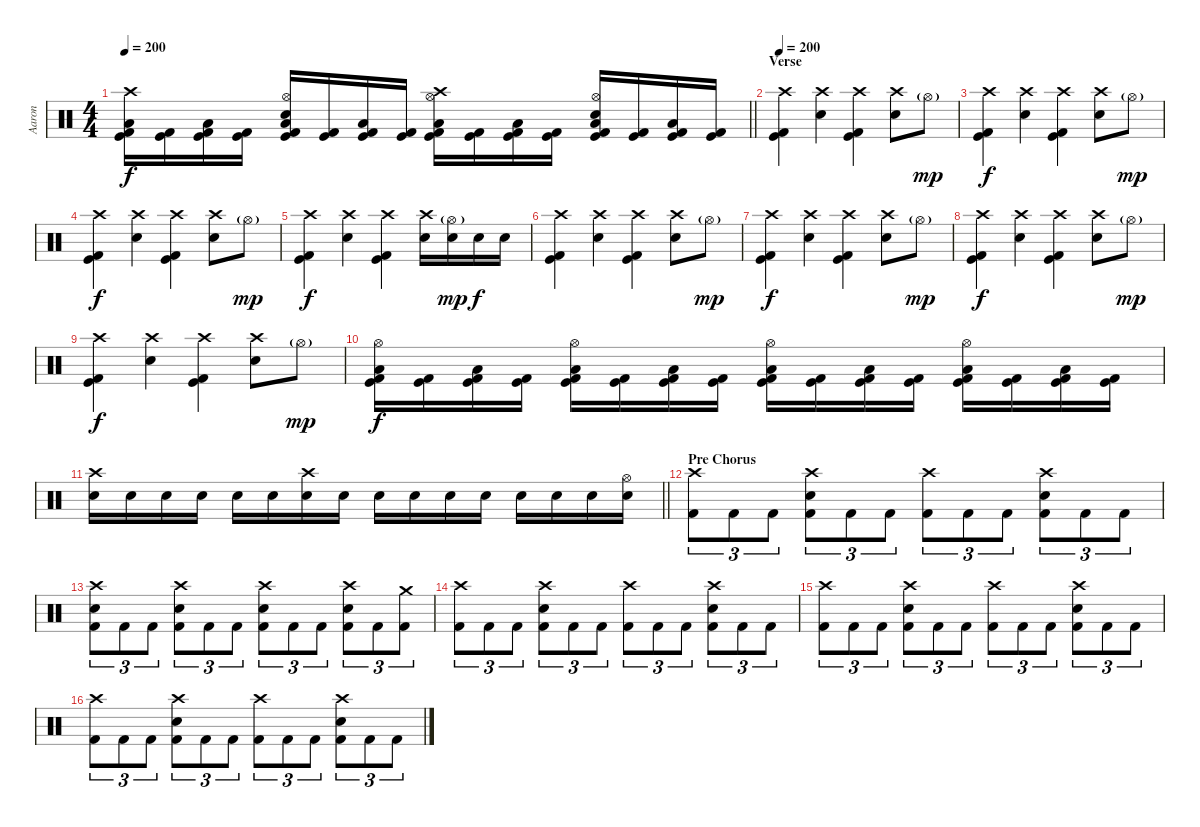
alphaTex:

\track ("Aaron" "Aaron") {instrument percussion}
\staff {score}
\articulation defaults
\ts (4 4)
\tempo 200
\clef neutral
\barLineRight lightlight
\ks c
("Crash high (hit)" "Low Floor Tom (hit)" "Kick (hit) 2" "Kick (hit)").16{dy f} ("Kick (hit) 2" "Kick (hit)").16 ("Low Floor Tom (hit)" "Kick (hit) 2" "Kick (hit)").16 ("Kick (hit) 2" "Kick (hit)").16 ("Hi-Hat (open)" "Electric Snare (hit)" "Low Floor Tom (hit)" "Kick (hit) 2" "Kick (hit)").16 ("Kick (hit) 2" "Kick (hit)").16 ("Low Floor Tom (hit)" "Kick (hit) 2" "Kick (hit)").16 ("Kick (hit) 2" "Kick (hit)").16 ("Hi-Hat (open)" "Crash high (hit)" "Low Floor Tom (hit)" "Kick (hit) 2" "Kick (hit)").16 ("Kick (hit) 2" "Kick (hit)").16 ("Low Floor Tom (hit)" "Kick (hit) 2" "Kick (hit)").16 ("Kick (hit) 2" "Kick (hit)").16 ("Hi-Hat (open)" "Electric Snare (hit)" "Low Floor Tom (hit)" "Kick (hit) 2" "Kick (hit)").16 ("Kick (hit) 2" "Kick (hit)").16 ("Low Floor Tom (hit)" "Kick (hit) 2" "Kick (hit)").16 ("Kick (hit) 2" "Kick (hit)").16 |
\section ("" "Verse")
\tempo 200
("Crash high (hit)" "Kick (hit)" "Kick (hit) 2").4 ("Crash high (hit)" "Snare (hit) 2").4 ("Crash high (hit)" "Kick (hit)" "Kick (hit) 2").4 ("Crash high (hit)" "Snare (hit) 2").8 "Hi-Hat (open)"{g}.8{dy mp} |
("Crash high (hit)" "Kick (hit)" "Kick (hit) 2").4{dy f} ("Crash high (hit)" "Snare (hit) 2").4 ("Crash high (hit)" "Kick (hit)" "Kick (hit) 2").4 ("Crash high (hit)" "Snare (hit) 2").8 "Hi-Hat (open)"{g}.8{dy mp} |
("Crash high (hit)" "Kick (hit)" "Kick (hit) 2").4{dy f} ("Crash high (hit)" "Snare (hit) 2").4 ("Crash high (hit)" "Kick (hit)" "Kick (hit) 2").4 ("Crash high (hit)" "Snare (hit) 2").8 "Hi-Hat (open)"{g}.8{dy mp} |
("Crash high (hit)" "Kick (hit)" "Kick (hit) 2").4{dy f} ("Crash high (hit)" "Snare (hit) 2").4 ("Crash high (hit)" "Kick (hit)" "Kick (hit) 2").4 ("Crash high (hit)" "Snare (hit) 2").16 ("Hi-Hat (open)"{g} "Snare (hit) 2").16{dy mp} "Snare (hit) 2".16{dy f} "Snare (hit) 2".16 |
("Crash high (hit)" "Kick (hit)" "Kick (hit) 2").4 ("Crash high (hit)" "Snare (hit) 2").4 ("Crash high (hit)" "Kick (hit)" "Kick (hit) 2").4 ("Crash high (hit)" "Snare (hit) 2").8 "Hi-Hat (open)"{g}.8{dy mp} |
("Crash high (hit)" "Kick (hit)" "Kick (hit) 2").4{dy f} ("Crash high (hit)" "Snare (hit) 2").4 ("Crash high (hit)" "Kick (hit)" "Kick (hit) 2").4 ("Crash high (hit)" "Snare (hit) 2").8 "Hi-Hat (open)"{g}.8{dy mp} |
("Crash high (hit)" "Kick (hit)" "Kick (hit) 2").4{dy f} ("Crash high (hit)" "Snare (hit) 2").4 ("Crash high (hit)" "Kick (hit)" "Kick (hit) 2").4 ("Crash high (hit)" "Snare (hit) 2").8 "Hi-Hat (open)"{g}.8{dy mp} |
("Crash high (hit)" "Kick (hit)" "Kick (hit) 2").4{dy f} ("Crash high (hit)" "Snare (hit) 2").4 ("Crash high (hit)" "Kick (hit)" "Kick (hit) 2").4 ("Crash high (hit)" "Snare (hit) 2").8 "Hi-Hat (open)"{g}.8{dy mp} |
("Hi-Hat (open)" "Low Floor Tom (hit)" "Kick (hit) 2" "Kick (hit)").16{dy f} ("Kick (hit) 2" "Kick (hit)").16 ("Low Floor Tom (hit)" "Kick (hit) 2" "Kick (hit)").16 ("Kick (hit) 2" "Kick (hit)").16 ("Hi-Hat (open)" "Low Floor Tom (hit)" "Kick (hit) 2" "Kick (hit)").16 ("Kick (hit) 2" "Kick (hit)").16 ("Low Floor Tom (hit)" "Kick (hit) 2" "Kick (hit)").16 ("Kick (hit) 2" "Kick (hit)").16 ("Hi-Hat (open)" "Low Floor Tom (hit)" "Kick (hit) 2" "Kick (hit)").16 ("Kick (hit) 2" "Kick (hit)").16 ("Low Floor Tom (hit)" "Kick (hit) 2" "Kick (hit)").16 ("Kick (hit) 2" "Kick (hit)").16 ("Hi-Hat (open)" "Low Floor Tom (hit)" "Kick (hit) 2" "Kick (hit)").16 ("Kick (hit) 2" "Kick (hit)").16 ("Low Floor Tom (hit)" "Kick (hit) 2" "Kick (hit)").16 ("Kick (hit) 2" "Kick (hit)").16 |
\barLineRight lightlight
("Crash high (hit)" "Snare (hit) 2").16 "Snare (hit) 2".16 "Snare (hit) 2".16 "Snare (hit) 2".16 "Snare (hit) 2".16 "Snare (hit) 2".16 ("Crash high (hit)" "Snare (hit) 2").16 "Snare (hit) 2".16 "Snare (hit) 2".16 "Snare (hit) 2".16 "Snare (hit) 2".16 "Snare (hit) 2".16 "Snare (hit) 2".16 "Snare (hit) 2".16 "Snare (hit) 2".16 ("Hi-Hat (open)" "Snare (hit) 2").16 |
\section ("" "Pre Chorus")
("Crash high (hit)" "Kick (hit) 2").8{tu (3 2)} "Kick (hit) 2".8{tu (3 2)} "Kick (hit) 2".8{tu (3 2)} ("Crash high (hit)" "Snare (hit) 2" "Kick (hit) 2").8{tu (3 2)} "Kick (hit) 2".8{tu (3 2)} "Kick (hit) 2".8{tu (3 2)} ("Crash high (hit)" "Kick (hit) 2").8{tu (3 2)} "Kick (hit) 2".8{tu (3 2)} "Kick (hit) 2".8{tu (3 2)} ("Crash high (hit)" "Snare (hit) 2" "Kick (hit) 2").8{tu (3 2)} "Kick (hit) 2".8{tu (3 2)} "Kick (hit) 2".8{tu (3 2)} |
("Crash high (hit)" "Snare (hit) 2" "Kick (hit) 2").8{tu (3 2)} "Kick (hit) 2".8{tu (3 2)} "Kick (hit) 2".8{tu (3 2)} ("Crash high (hit)" "Snare (hit) 2" "Kick (hit) 2").8{tu (3 2)} "Kick (hit) 2".8{tu (3 2)} "Kick (hit) 2".8{tu (3 2)} ("Crash high (hit)" "Snare (hit) 2" "Kick (hit) 2").8{tu (3 2)} "Kick (hit) 2".8{tu (3 2)} "Kick (hit) 2".8{tu (3 2)} ("Crash high (hit)" "Snare (hit) 2" "Kick (hit) 2").8{tu (3 2)} "Kick (hit) 2".8{tu (3 2)} ("Crash medium (hit)" "Kick (hit) 2").8{tu (3 2)} |
("Crash high (hit)" "Kick (hit) 2").8{tu (3 2)} "Kick (hit) 2".8{tu (3 2)} "Kick (hit) 2".8{tu (3 2)} ("Crash high (hit)" "Snare (hit) 2" "Kick (hit) 2").8{tu (3 2)} "Kick (hit) 2".8{tu (3 2)} "Kick (hit) 2".8{tu (3 2)} ("Crash high (hit)" "Kick (hit) 2").8{tu (3 2)} "Kick (hit) 2".8{tu (3 2)} "Kick (hit) 2".8{tu (3 2)} ("Crash high (hit)" "Snare (hit) 2" "Kick (hit) 2").8{tu (3 2)} "Kick (hit) 2".8{tu (3 2)} "Kick (hit) 2".8{tu (3 2)} |
("Crash high (hit)" "Kick (hit) 2").8{tu (3 2)} "Kick (hit) 2".8{tu (3 2)} "Kick (hit) 2".8{tu (3 2)} ("Crash high (hit)" "Snare (hit) 2" "Kick (hit) 2").8{tu (3 2)} "Kick (hit) 2".8{tu (3 2)} "Kick (hit) 2".8{tu (3 2)} ("Crash high (hit)" "Kick (hit) 2").8{tu (3 2)} "Kick (hit) 2".8{tu (3 2)} "Kick (hit) 2".8{tu (3 2)} ("Crash high (hit)" "Snare (hit) 2" "Kick (hit) 2").8{tu (3 2)} "Kick (hit) 2".8{tu (3 2)} "Kick (hit) 2".8{tu (3 2)} |
("Crash high (hit)" "Kick (hit) 2").8{tu (3 2)} "Kick (hit) 2".8{tu (3 2)} "Kick (hit) 2".8{tu (3 2)} ("Crash high (hit)" "Snare (hit) 2" "Kick (hit) 2").8{tu (3 2)} "Kick (hit) 2".8{tu (3 2)} "Kick (hit) 2".8{tu (3 2)} ("Crash high (hit)" "Kick (hit) 2").8{tu (3 2)} "Kick (hit) 2".8{tu (3 2)} "Kick (hit) 2".8{tu (3 2)} ("Crash high (hit)" "Snare (hit) 2" "Kick (hit) 2").8{tu (3 2)} "Kick (hit) 2".8{tu (3 2)} "Kick (hit) 2".8{tu (3 2)}
